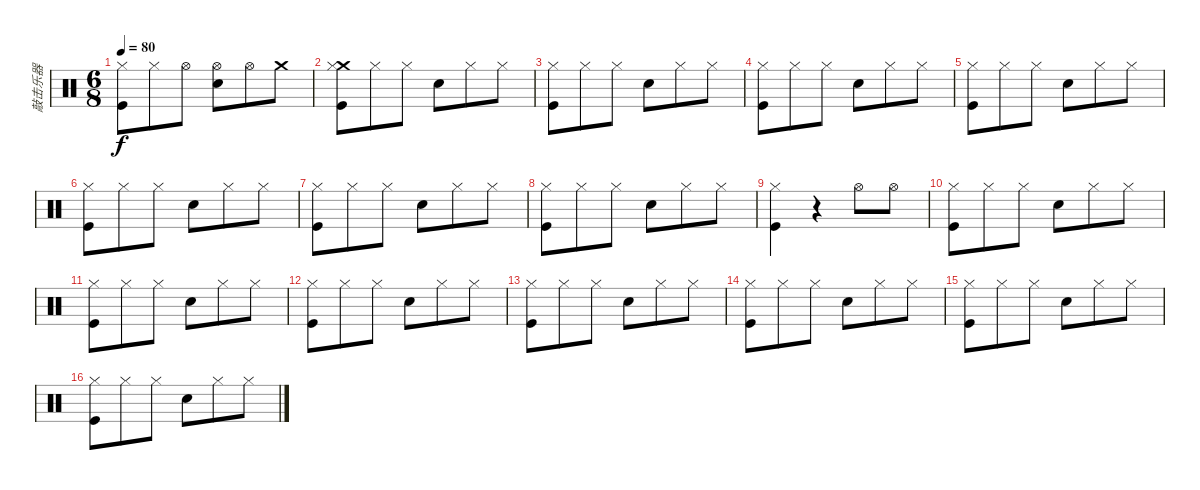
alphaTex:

\track ("敲击乐器" "敲击乐器") {instrument percussion}
\staff {score}
\articulation defaults
\ts (6 8)
\tempo 80
\clef neutral
\ks c
("Hi-Hat (closed)" "Kick (hit)").8{dy f} "Hi-Hat (closed)".8 "Hi-Hat (open)".8 ("Hi-Hat (open)" "Snare (hit) 2").8 "Hi-Hat (open)".8 "Crash medium (hit)".8 |
("Crash medium (hit)" "Hi-Hat (closed)" "Kick (hit)").8 "Hi-Hat (closed)".8 "Hi-Hat (closed)".8 "Snare (hit) 2".8 "Hi-Hat (closed)".8 "Hi-Hat (closed)".8 |
("Hi-Hat (closed)" "Kick (hit)").8 "Hi-Hat (closed)".8 "Hi-Hat (closed)".8 "Snare (hit) 2".8 "Hi-Hat (closed)".8 "Hi-Hat (closed)".8 |
("Hi-Hat (closed)" "Kick (hit)").8 "Hi-Hat (closed)".8 "Hi-Hat (closed)".8 "Snare (hit) 2".8 "Hi-Hat (closed)".8 "Hi-Hat (closed)".8 |
("Hi-Hat (closed)" "Kick (hit)").8 "Hi-Hat (closed)".8 "Hi-Hat (closed)".8 "Snare (hit) 2".8 "Hi-Hat (closed)".8 "Hi-Hat (closed)".8 |
("Hi-Hat (closed)" "Kick (hit)").8 "Hi-Hat (closed)".8 "Hi-Hat (closed)".8 "Snare (hit) 2".8 "Hi-Hat (closed)".8 "Hi-Hat (closed)".8 |
("Hi-Hat (closed)" "Kick (hit)").8 "Hi-Hat (closed)".8 "Hi-Hat (closed)".8 "Snare (hit) 2".8 "Hi-Hat (closed)".8 "Hi-Hat (closed)".8 |
("Hi-Hat (closed)" "Kick (hit)").8 "Hi-Hat (closed)".8 "Hi-Hat (closed)".8 "Snare (hit) 2".8 "Hi-Hat (closed)".8 "Hi-Hat (closed)".8 |
("Hi-Hat (closed)" "Kick (hit)").4 r.4 "Hi-Hat (open)".8 "Hi-Hat (open)".8 |
("Hi-Hat (closed)" "Kick (hit)").8 "Hi-Hat (closed)".8 "Hi-Hat (closed)".8 "Snare (hit) 2".8 "Hi-Hat (closed)".8 "Hi-Hat (closed)".8 |
("Hi-Hat (closed)" "Kick (hit)").8 "Hi-Hat (closed)".8 "Hi-Hat (closed)".8 "Snare (hit) 2".8 "Hi-Hat (closed)".8 "Hi-Hat (closed)".8 |
("Hi-Hat (closed)" "Kick (hit)").8 "Hi-Hat (closed)".8 "Hi-Hat (closed)".8 "Snare (hit) 2".8 "Hi-Hat (closed)".8 "Hi-Hat (closed)".8 |
("Hi-Hat (closed)" "Kick (hit)").8 "Hi-Hat (closed)".8 "Hi-Hat (closed)".8 "Snare (hit) 2".8 "Hi-Hat (closed)".8 "Hi-Hat (closed)".8 |
("Hi-Hat (closed)" "Kick (hit)").8 "Hi-Hat (closed)".8 "Hi-Hat (closed)".8 "Snare (hit) 2".8 "Hi-Hat (closed)".8 "Hi-Hat (closed)".8 |
("Hi-Hat (closed)" "Kick (hit)").8 "Hi-Hat (closed)".8 "Hi-Hat (closed)".8 "Snare (hit) 2".8 "Hi-Hat (closed)".8 "Hi-Hat (closed)".8 |
("Hi-Hat (closed)" "Kick (hit)").8 "Hi-Hat (closed)".8 "Hi-Hat (closed)".8 "Snare (hit) 2".8 "Hi-Hat (closed)".8 "Hi-Hat (closed)".8
